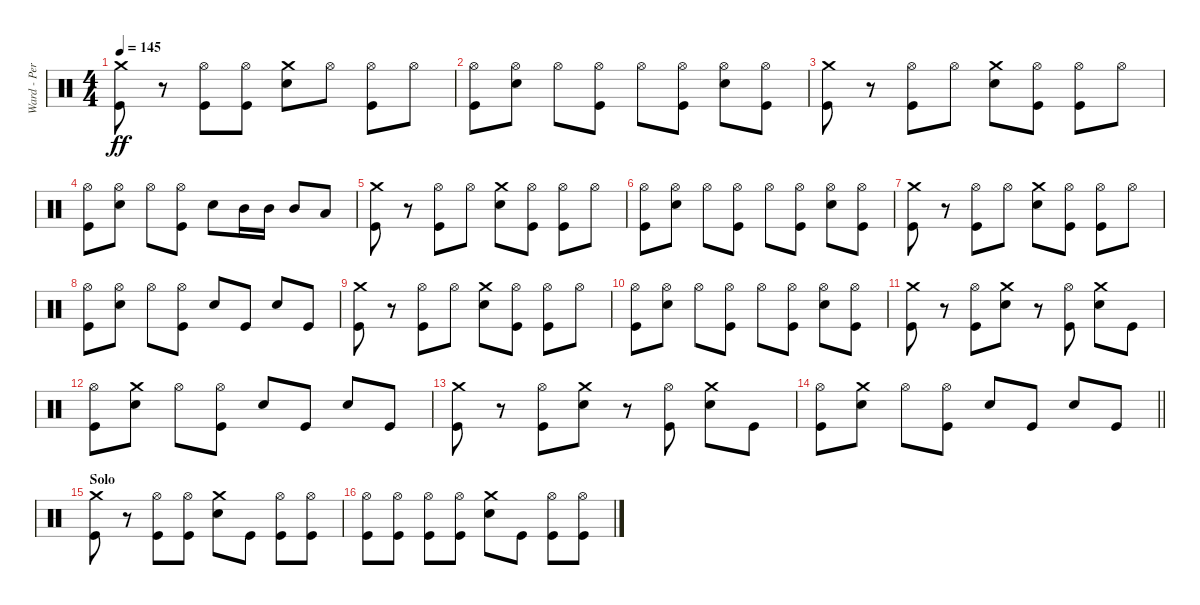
\track ("Ward - Percussion" "Ward - Per") {instrument percussion}
\staff {score}
\articulation defaults
\ts (4 4)
\tempo 145
\clef neutral
\ks c
("Kick (hit)" "Crash medium (hit)").8{dy ff} r.8 ("Hi-Hat (open)" "Kick (hit)").8 ("Hi-Hat (open)" "Kick (hit)").8 ("Snare (hit) 2" "Crash medium (hit)").8 "Hi-Hat (open)".8 ("Hi-Hat (open)" "Kick (hit)").8 "Hi-Hat (open)".8 |
("Kick (hit)" "Hi-Hat (open)").8 ("Hi-Hat (open)" "Snare (hit) 2").8 "Hi-Hat (open)".8 ("Hi-Hat (open)" "Kick (hit)").8 "Hi-Hat (open)".8 ("Kick (hit)" "Hi-Hat (open)").8 ("Snare (hit) 2" "Hi-Hat (open)").8 ("Hi-Hat (open)" "Kick (hit)").8 |
("Crash medium (hit)" "Kick (hit)").8 r.8 ("Hi-Hat (open)" "Kick (hit)").8 "Hi-Hat (open)".8 ("Snare (hit) 2" "Crash medium (hit)").8 ("Kick (hit)" "Hi-Hat (open)").8 ("Hi-Hat (open)" "Kick (hit)").8 "Hi-Hat (open)".8 |
("Kick (hit)" "Hi-Hat (open)").8 ("Hi-Hat (open)" "Snare (hit) 2").8 "Hi-Hat (open)".8 ("Hi-Hat (open)" "Kick (hit)").8 "Snare (hit) 2".8 "Mid Tom (hit)".16 "Mid Tom (hit)".16 "Mid Tom (hit)".8 "Low Floor Tom (hit)".8 |
("Crash medium (hit)" "Kick (hit)").8 r.8 ("Hi-Hat (open)" "Kick (hit)").8 "Hi-Hat (open)".8 ("Snare (hit) 2" "Crash medium (hit)").8 ("Hi-Hat (open)" "Kick (hit)").8 ("Hi-Hat (open)" "Kick (hit)").8 "Hi-Hat (open)".8 |
("Kick (hit)" "Hi-Hat (open)").8 ("Hi-Hat (open)" "Snare (hit) 2").8 "Hi-Hat (open)".8 ("Hi-Hat (open)" "Kick (hit)").8 "Hi-Hat (open)".8 ("Kick (hit)" "Hi-Hat (open)").8 ("Snare (hit) 2" "Hi-Hat (open)").8 ("Hi-Hat (open)" "Kick (hit)").8 |
("Crash medium (hit)" "Kick (hit)").8 r.8 ("Hi-Hat (open)" "Kick (hit)").8 "Hi-Hat (open)".8 ("Snare (hit) 2" "Crash medium (hit)").8 ("Hi-Hat (open)" "Kick (hit)").8 ("Hi-Hat (open)" "Kick (hit)").8 "Hi-Hat (open)".8 |
("Kick (hit)" "Hi-Hat (open)").8 ("Hi-Hat (open)" "Snare (hit) 2").8 "Hi-Hat (open)".8 ("Hi-Hat (open)" "Kick (hit)").8 "Snare (hit) 2".8 "Kick (hit)".8 "Snare (hit) 2".8 "Kick (hit)".8 |
("Kick (hit)" "Crash medium (hit)").8 r.8 ("Hi-Hat (open)" "Kick (hit)").8 "Hi-Hat (open)".8 ("Snare (hit) 2" "Crash medium (hit)").8 ("Kick (hit)" "Hi-Hat (open)").8 ("Hi-Hat (open)" "Kick (hit)").8 "Hi-Hat (open)".8 |
("Kick (hit)" "Hi-Hat (open)").8 ("Hi-Hat (open)" "Snare (hit) 2").8 "Hi-Hat (open)".8 ("Hi-Hat (open)" "Kick (hit)").8 "Hi-Hat (open)".8 ("Kick (hit)" "Hi-Hat (open)").8 ("Snare (hit) 2" "Hi-Hat (open)").8 ("Hi-Hat (open)" "Kick (hit)").8 |
("Crash medium (hit)" "Kick (hit)").8 r.8 ("Hi-Hat (open)" "Kick (hit)").8 ("Crash medium (hit)" "Snare (hit) 2").8 r.8 ("Hi-Hat (open)" "Kick (hit)").8 ("Crash medium (hit)" "Snare (hit) 2").8 "Kick (hit)".8 |
("Kick (hit)" "Hi-Hat (open)").8 ("Crash medium (hit)" "Snare (hit) 2").8 "Hi-Hat (open)".8 ("Hi-Hat (open)" "Kick (hit)").8 "Snare (hit) 2".8 "Kick (hit)".8 "Snare (hit) 2".8 "Kick (hit)".8 |
("Crash medium (hit)" "Kick (hit)").8 r.8 ("Hi-Hat (open)" "Kick (hit)").8 ("Crash medium (hit)" "Snare (hit) 2").8 r.8 ("Hi-Hat (open)" "Kick (hit)").8 ("Crash medium (hit)" "Snare (hit) 2").8 "Kick (hit)".8 |
\barLineRight lightlight
("Kick (hit)" "Hi-Hat (open)").8 ("Crash medium (hit)" "Snare (hit) 2").8 "Hi-Hat (open)".8 ("Hi-Hat (open)" "Kick (hit)").8 "Snare (hit) 2".8 "Kick (hit)".8 "Snare (hit) 2".8 "Kick (hit)".8 |
\section ("" "Solo")
("Kick (hit)" "Crash medium (hit)").8 r.8 ("Hi-Hat (open)" "Kick (hit)").8 ("Hi-Hat (open)" "Kick (hit)").8 ("Snare (hit) 2" "Crash medium (hit)").8 "Kick (hit)".8 ("Hi-Hat (open)" "Kick (hit)").8 ("Hi-Hat (open)" "Kick (hit)").8 |
("Hi-Hat (open)" "Kick (hit)").8 ("Hi-Hat (open)" "Kick (hit)").8 ("Kick (hit)" "Hi-Hat (open)").8 ("Hi-Hat (open)" "Kick (hit)").8 ("Snare (hit) 2" "Crash medium (hit)").8 "Kick (hit)".8 ("Hi-Hat (open)" "Kick (hit)").8 ("Hi-Hat (open)" "Kick (hit)").8
